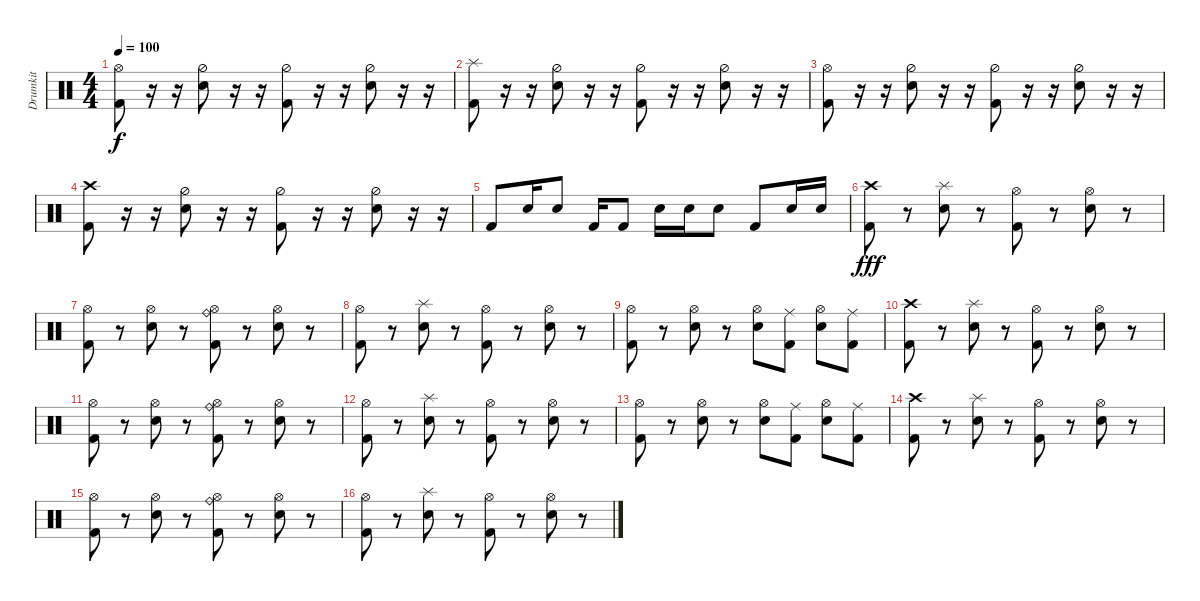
\track ("Drumkit" "Drumkit") {instrument percussion}
\staff {score}
\articulation defaults
\ts (4 4)
\tempo 100
\clef neutral
\ks c
("Kick (hit) 2" "Hi-Hat (open)").8{dy f} r.16 r.16 ("Hi-Hat (half)" "Snare (hit) 2").8 r.16 r.16 ("Kick (hit) 2" "Hi-Hat (half)").8 r.16 r.16 ("Snare (hit) 2" "Hi-Hat (half)").8 r.16 r.16 |
("Kick (hit) 2" "Splash (hit)").8 r.16 r.16 ("Hi-Hat (half)" "Snare (hit) 2").8 r.16 r.16 ("Kick (hit) 2" "Hi-Hat (half)").8 r.16 r.16 ("Snare (hit) 2" "Hi-Hat (half)").8 r.16 r.16 |
("Kick (hit) 2" "Hi-Hat (open)").8 r.16 r.16 ("Hi-Hat (half)" "Snare (hit) 2").8 r.16 r.16 ("Kick (hit) 2" "Hi-Hat (half)").8 r.16 r.16 ("Snare (hit) 2" "Hi-Hat (half)").8 r.16 r.16 |
("Kick (hit) 2" "Crash high (hit)").8 r.16 r.16 ("Hi-Hat (half)" "Snare (hit) 2").8 r.16 r.16 ("Kick (hit) 2" "Hi-Hat (half)").8 r.16 r.16 ("Snare (hit) 2" "Hi-Hat (half)").8 r.16 r.16 |
"Kick (hit) 2".8 "Snare (hit) 2".16 "Snare (hit) 2".8 "Kick (hit) 2".16 "Kick (hit) 2".8 "Snare (hit) 2".16 "Snare (hit) 2".16 "Snare (hit) 2".8 "Kick (hit) 2".8 "Snare (hit) 2".16 "Snare (hit) 2".16 |
("Kick (hit) 2" "Crash high (hit)").8{dy fff} r.8 ("Snare (hit) 2" "Splash (hit)").8 r.8 ("Kick (hit) 2" "Hi-Hat (open)").8 r.8 ("Snare (hit) 2" "Hi-Hat (open)").8 r.8 |
("Kick (hit) 2" "Hi-Hat (open)").8 r.8 ("Snare (hit) 2" "Hi-Hat (open)").8 r.8 ("Kick (hit) 2" "Hi-Hat (open)" "Ride (bell)").8 r.8 ("Hi-Hat (open)" "Snare (hit) 2").8 r.8 |
("Kick (hit) 2" "Hi-Hat (open)").8 r.8 ("Snare (hit) 2" "Splash (hit)").8 r.8 ("Kick (hit) 2" "Hi-Hat (open)").8 r.8 ("Snare (hit) 2" "Hi-Hat (open)").8 r.8 |
("Kick (hit) 2" "Hi-Hat (open)").8 r.8 ("Snare (hit) 2" "Hi-Hat (open)").8 r.8 ("Snare (hit) 2" "Hi-Hat (open)").8 ("Kick (hit) 2" "Ride (middle)").8 ("Snare (hit) 2" "Hi-Hat (open)").8 ("Kick (hit) 2" "Ride (middle)").8 |
("Kick (hit) 2" "Crash high (hit)").8 r.8 ("Snare (hit) 2" "Splash (hit)").8 r.8 ("Kick (hit) 2" "Hi-Hat (open)").8 r.8 ("Snare (hit) 2" "Hi-Hat (open)").8 r.8 |
("Kick (hit) 2" "Hi-Hat (open)").8 r.8 ("Snare (hit) 2" "Hi-Hat (open)").8 r.8 ("Kick (hit) 2" "Hi-Hat (open)" "Ride (bell)").8 r.8 ("Hi-Hat (open)" "Snare (hit) 2").8 r.8 |
("Kick (hit) 2" "Hi-Hat (open)").8 r.8 ("Snare (hit) 2" "Splash (hit)").8 r.8 ("Kick (hit) 2" "Hi-Hat (open)").8 r.8 ("Snare (hit) 2" "Hi-Hat (open)").8 r.8 |
("Kick (hit) 2" "Hi-Hat (open)").8 r.8 ("Snare (hit) 2" "Hi-Hat (open)").8 r.8 ("Snare (hit) 2" "Hi-Hat (open)").8 ("Kick (hit) 2" "Ride (middle)").8 ("Snare (hit) 2" "Hi-Hat (open)").8 ("Kick (hit) 2" "Ride (middle)").8 |
("Kick (hit) 2" "Crash high (hit)").8 r.8 ("Snare (hit) 2" "Splash (hit)").8 r.8 ("Kick (hit) 2" "Hi-Hat (open)").8 r.8 ("Snare (hit) 2" "Hi-Hat (open)").8 r.8 |
("Kick (hit) 2" "Hi-Hat (open)").8 r.8 ("Snare (hit) 2" "Hi-Hat (open)").8 r.8 ("Kick (hit) 2" "Hi-Hat (open)" "Ride (bell)").8 r.8 ("Hi-Hat (open)" "Snare (hit) 2").8 r.8 |
("Kick (hit) 2" "Hi-Hat (open)").8 r.8 ("Snare (hit) 2" "Splash (hit)").8 r.8 ("Kick (hit) 2" "Hi-Hat (open)").8 r.8 ("Snare (hit) 2" "Hi-Hat (open)").8 r.8
